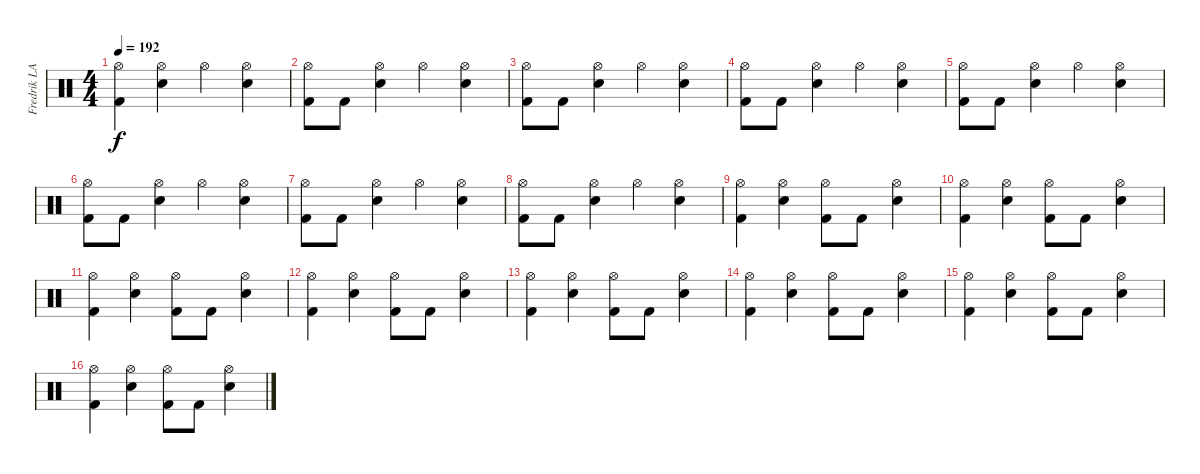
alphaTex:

\track ("Fredrik LARZON" "Fredrik LA") {instrument percussion}
\staff {score}
\articulation defaults
\ts (4 4)
\tempo 192
\clef neutral
\ks c
("Hi-Hat (open)" "Kick (hit) 2").4{dy f} ("Hi-Hat (open)" "Electric Snare (hit)").4 "Hi-Hat (open)".4 ("Hi-Hat (open)" "Electric Snare (hit)").4 |
("Hi-Hat (open)" "Kick (hit) 2").8 "Kick (hit) 2".8 ("Hi-Hat (open)" "Electric Snare (hit)").4 "Hi-Hat (open)".4 ("Hi-Hat (open)" "Electric Snare (hit)").4 |
("Hi-Hat (open)" "Kick (hit) 2").8 "Kick (hit) 2".8 ("Hi-Hat (open)" "Electric Snare (hit)").4 "Hi-Hat (open)".4 ("Hi-Hat (open)" "Electric Snare (hit)").4 |
("Hi-Hat (open)" "Kick (hit) 2").8 "Kick (hit) 2".8 ("Hi-Hat (open)" "Electric Snare (hit)").4 "Hi-Hat (open)".4 ("Hi-Hat (open)" "Electric Snare (hit)").4 |
("Hi-Hat (open)" "Kick (hit) 2").8 "Kick (hit) 2".8 ("Hi-Hat (open)" "Electric Snare (hit)").4 "Hi-Hat (open)".4 ("Hi-Hat (open)" "Electric Snare (hit)").4 |
("Hi-Hat (open)" "Kick (hit) 2").8 "Kick (hit) 2".8 ("Hi-Hat (open)" "Electric Snare (hit)").4 "Hi-Hat (open)".4 ("Hi-Hat (open)" "Electric Snare (hit)").4 |
("Hi-Hat (open)" "Kick (hit) 2").8 "Kick (hit) 2".8 ("Hi-Hat (open)" "Electric Snare (hit)").4 "Hi-Hat (open)".4 ("Hi-Hat (open)" "Electric Snare (hit)").4 |
("Hi-Hat (open)" "Kick (hit) 2").8 "Kick (hit) 2".8 ("Hi-Hat (open)" "Electric Snare (hit)").4 "Hi-Hat (open)".4 ("Hi-Hat (open)" "Electric Snare (hit)").4 |
("Hi-Hat (open)" "Kick (hit) 2").4 ("Hi-Hat (open)" "Electric Snare (hit)").4 ("Hi-Hat (open)" "Kick (hit) 2").8 "Kick (hit) 2".8 ("Hi-Hat (open)" "Electric Snare (hit)").4 |
("Hi-Hat (open)" "Kick (hit) 2").4 ("Hi-Hat (open)" "Electric Snare (hit)").4 ("Hi-Hat (open)" "Kick (hit) 2").8 "Kick (hit) 2".8 ("Hi-Hat (open)" "Electric Snare (hit)").4 |
("Hi-Hat (open)" "Kick (hit) 2").4 ("Hi-Hat (open)" "Electric Snare (hit)").4 ("Hi-Hat (open)" "Kick (hit) 2").8 "Kick (hit) 2".8 ("Hi-Hat (open)" "Electric Snare (hit)").4 |
("Hi-Hat (open)" "Kick (hit) 2").4 ("Hi-Hat (open)" "Electric Snare (hit)").4 ("Hi-Hat (open)" "Kick (hit) 2").8 "Kick (hit) 2".8 ("Hi-Hat (open)" "Electric Snare (hit)").4 |
("Hi-Hat (open)" "Kick (hit) 2").4 ("Hi-Hat (open)" "Electric Snare (hit)").4 ("Hi-Hat (open)" "Kick (hit) 2").8 "Kick (hit) 2".8 ("Hi-Hat (open)" "Electric Snare (hit)").4 |
("Hi-Hat (open)" "Kick (hit) 2").4 ("Hi-Hat (open)" "Electric Snare (hit)").4 ("Hi-Hat (open)" "Kick (hit) 2").8 "Kick (hit) 2".8 ("Hi-Hat (open)" "Electric Snare (hit)").4 |
("Hi-Hat (open)" "Kick (hit) 2").4 ("Hi-Hat (open)" "Electric Snare (hit)").4 ("Hi-Hat (open)" "Kick (hit) 2").8 "Kick (hit) 2".8 ("Hi-Hat (open)" "Electric Snare (hit)").4 |
("Hi-Hat (open)" "Kick (hit) 2").4 ("Hi-Hat (open)" "Electric Snare (hit)").4 ("Hi-Hat (open)" "Kick (hit) 2").8 "Kick (hit) 2".8 ("Hi-Hat (open)" "Electric Snare (hit)").4
